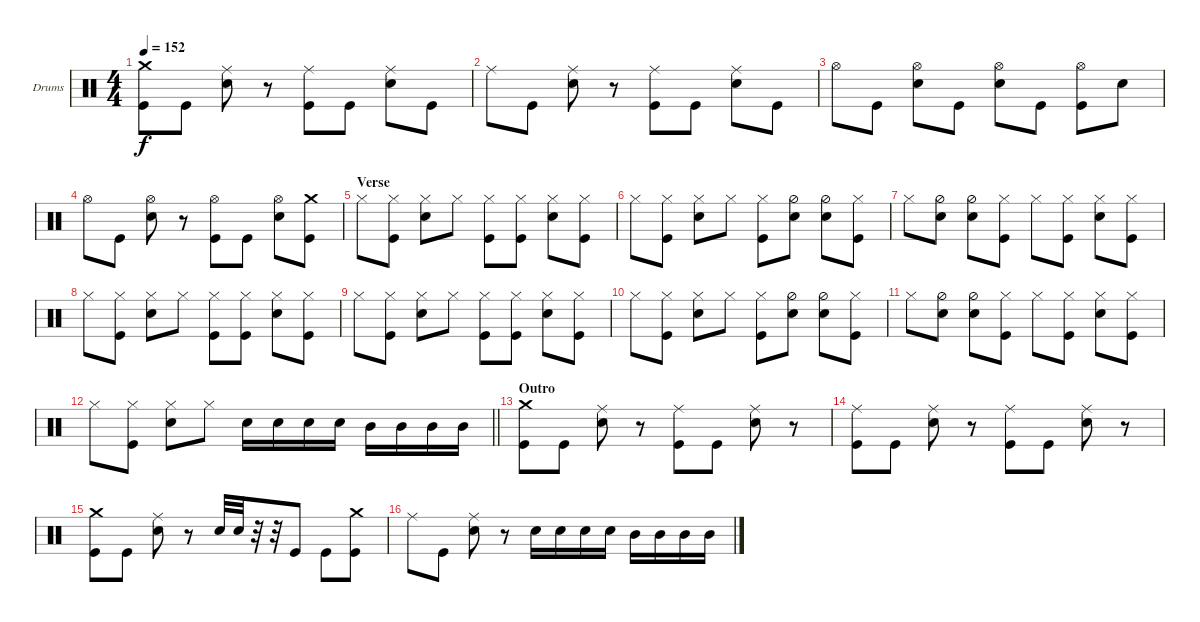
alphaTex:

\bracketExtendMode groupsimilarinstruments
\firstSystemTrackNameOrientation horizontal
\otherSystemsTrackNameOrientation horizontal
\track ("Drumkit" "Drums") {instrument percussion}
\staff {score}
\articulation defaults
\ts (4 4)
\tempo 152
\clef neutral
\ks c
("Kick (hit)" "Crash medium (hit)").8{dy f} "Kick (hit)".8 ("Snare (hit) 2" "Ride (middle)").8 r.8 ("Kick (hit)" "Ride (middle)").8 "Kick (hit)".8 ("Snare (hit) 2" "Ride (middle)").8 "Kick (hit)".8 |
"Ride (middle)".8 "Kick (hit)".8 ("Snare (hit) 2" "Ride (middle)").8 r.8 ("Kick (hit)" "Ride (middle)").8 "Kick (hit)".8 ("Snare (hit) 2" "Ride (middle)").8 "Kick (hit)".8 |
"Hi-Hat (open)".8 "Kick (hit)".8 ("Snare (hit) 2" "Hi-Hat (open)").8 "Kick (hit)".8 ("Snare (hit) 2" "Hi-Hat (open)").8 "Kick (hit)".8 ("Kick (hit)" "Hi-Hat (open)").8 "Snare (hit) 2".8 |
"Hi-Hat (open)".8 "Kick (hit)".8 ("Snare (hit) 2" "Hi-Hat (open)").8 r.8 ("Kick (hit)" "Hi-Hat (open)").8 "Kick (hit)".8 ("Snare (hit) 2" "Hi-Hat (open)").8 ("Kick (hit)" "Crash medium (hit)").8 |
\section ("" "Verse")
"Hi-Hat (closed)".8 ("Hi-Hat (closed)" "Kick (hit)").8 ("Snare (hit) 2" "Hi-Hat (closed)").8 "Hi-Hat (closed)".8 ("Kick (hit)" "Hi-Hat (closed)").8 ("Kick (hit)" "Hi-Hat (closed)").8 ("Snare (hit) 2" "Hi-Hat (closed)").8 ("Hi-Hat (closed)" "Kick (hit)").8 |
"Hi-Hat (closed)".8 ("Kick (hit)" "Hi-Hat (closed)").8 ("Snare (hit) 2" "Hi-Hat (closed)").8 "Hi-Hat (closed)".8 ("Hi-Hat (closed)" "Kick (hit)").8 ("Snare (hit) 2" "Hi-Hat (half)").8 ("Snare (hit) 2" "Hi-Hat (half)").8 ("Kick (hit)" "Hi-Hat (closed)").8 |
"Hi-Hat (closed)".8 ("Snare (hit) 2" "Hi-Hat (half)").8 ("Snare (hit) 2" "Hi-Hat (half)").8 ("Kick (hit)" "Hi-Hat (closed)").8 "Hi-Hat (closed)".8 ("Kick (hit)" "Hi-Hat (closed)").8 ("Snare (hit) 2" "Hi-Hat (closed)").8 ("Hi-Hat (closed)" "Kick (hit)").8 |
"Hi-Hat (closed)".8 ("Hi-Hat (closed)" "Kick (hit)").8 ("Snare (hit) 2" "Hi-Hat (closed)").8 "Hi-Hat (closed)".8 ("Kick (hit)" "Hi-Hat (closed)").8 ("Kick (hit)" "Hi-Hat (closed)").8 ("Snare (hit) 2" "Hi-Hat (closed)").8 ("Hi-Hat (closed)" "Kick (hit)").8 |
"Hi-Hat (closed)".8 ("Hi-Hat (closed)" "Kick (hit)").8 ("Snare (hit) 2" "Hi-Hat (closed)").8 "Hi-Hat (closed)".8 ("Kick (hit)" "Hi-Hat (closed)").8 ("Kick (hit)" "Hi-Hat (closed)").8 ("Snare (hit) 2" "Hi-Hat (closed)").8 ("Hi-Hat (closed)" "Kick (hit)").8 |
"Hi-Hat (closed)".8 ("Kick (hit)" "Hi-Hat (closed)").8 ("Snare (hit) 2" "Hi-Hat (closed)").8 "Hi-Hat (closed)".8 ("Hi-Hat (closed)" "Kick (hit)").8 ("Snare (hit) 2" "Hi-Hat (half)").8 ("Snare (hit) 2" "Hi-Hat (half)").8 ("Kick (hit)" "Hi-Hat (closed)").8 |
"Hi-Hat (closed)".8 ("Snare (hit) 2" "Hi-Hat (half)").8 ("Snare (hit) 2" "Hi-Hat (half)").8 ("Kick (hit)" "Hi-Hat (closed)").8 "Hi-Hat (closed)".8 ("Kick (hit)" "Hi-Hat (closed)").8 ("Snare (hit) 2" "Hi-Hat (closed)").8 ("Hi-Hat (closed)" "Kick (hit)").8 |
\barLineRight lightlight "Hi-Hat (closed)".8
("Hi-Hat (closed)" "Kick (hit)").8 ("Snare (hit) 2" "Hi-Hat (closed)").8 "Hi-Hat (closed)".8 "Snare (hit) 2".16 "Snare (hit) 2".16 "Snare (hit) 2".16 "Snare (hit) 2".16 "Mid Tom (hit)".16 "Mid Tom (hit)".16 "Mid Tom (hit)".16 "Mid Tom (hit)".16 |
\section ("" "Outro")
("Kick (hit)" "Crash medium (hit)").8 "Kick (hit)".8 ("Snare (hit) 2" "Ride (middle)").8 r.8 ("Kick (hit)" "Ride (middle)").8 "Kick (hit)".8 ("Snare (hit) 2" "Ride (middle)").8 r.8 |
("Kick (hit)" "Ride (middle)").8 "Kick (hit)".8 ("Snare (hit) 2" "Ride (middle)").8 r.8 ("Kick (hit)" "Ride (middle)").8 "Kick (hit)".8 ("Snare (hit) 2" "Ride (middle)").8 r.8 |
("Kick (hit)" "Crash medium (hit)").8 "Kick (hit)".8 ("Snare (hit) 2" "Ride (middle)").8 r.8 "Snare (hit) 2".32 "Snare (hit) 2".32 r.32 r.32 "Kick (hit)".8 "Kick (hit)".8 ("Kick (hit)" "Crash medium (hit)").8 |
"Ride (middle)".8 "Kick (hit)".8 ("Snare (hit) 2" "Ride (middle)").8 r.8 "Snare (hit) 2".16 "Snare (hit) 2".16 "Snare (hit) 2".16 "Snare (hit) 2".16 "Mid Tom (hit)".16 "Mid Tom (hit)".16 "Mid Tom (hit)".16 "Mid Tom (hit)".16
